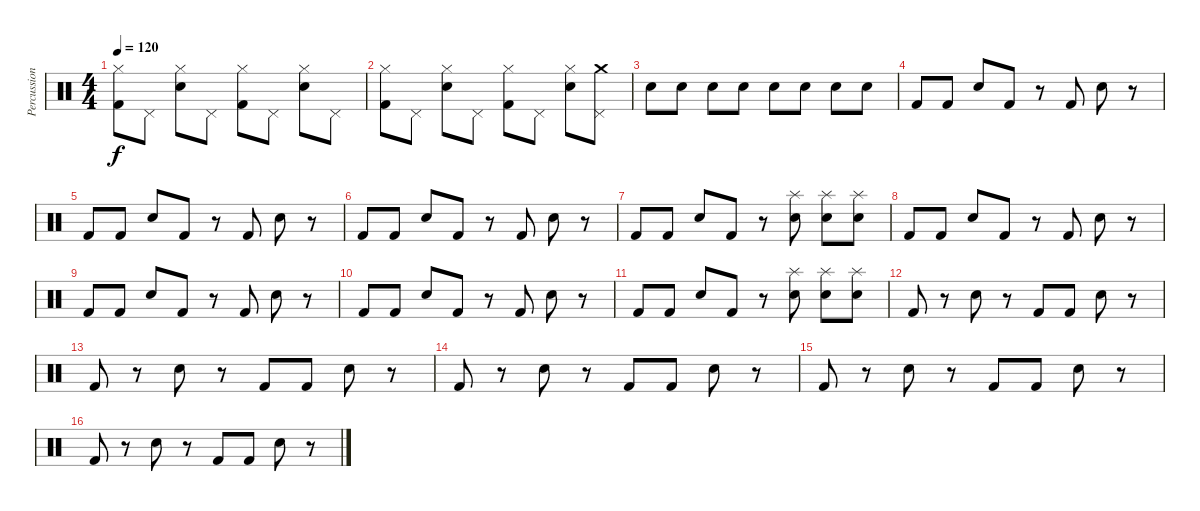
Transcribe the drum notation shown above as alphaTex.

\track ("Percussion" "Percussion") {instrument percussion}
\staff {score}
\articulation defaults
\ts (4 4)
\tempo 120
\clef neutral
\ks c
("Kick (hit) 2" "Hi-Hat (closed)").8{dy f} "Pedal Hi-Hat (hit)".8 ("Snare (hit) 2" "Hi-Hat (closed)").8 "Pedal Hi-Hat (hit)".8 ("Kick (hit) 2" "Hi-Hat (closed)").8 "Pedal Hi-Hat (hit)".8 ("Snare (hit) 2" "Hi-Hat (closed)").8 "Pedal Hi-Hat (hit)".8 |
("Kick (hit) 2" "Hi-Hat (closed)").8 "Pedal Hi-Hat (hit)".8 ("Snare (hit) 2" "Hi-Hat (closed)").8 "Pedal Hi-Hat (hit)".8 ("Kick (hit) 2" "Hi-Hat (closed)").8 "Pedal Hi-Hat (hit)".8 ("Snare (hit) 2" "Hi-Hat (closed)").8 ("Pedal Hi-Hat (hit)" "Crash medium (hit)").8 |
"Snare (hit) 2".8 "Snare (hit) 2".8 "Snare (hit) 2".8 "Snare (hit) 2".8 "Snare (hit) 2".8 "Snare (hit) 2".8 "Snare (hit) 2".8 "Snare (hit) 2".8 |
"Kick (hit) 2".8 "Kick (hit) 2".8 "Snare (hit) 2".8 "Kick (hit) 2".8 r.8 "Kick (hit) 2".8 "Snare (hit) 2".8 r.8 |
"Kick (hit) 2".8 "Kick (hit) 2".8 "Snare (hit) 2".8 "Kick (hit) 2".8 r.8 "Kick (hit) 2".8 "Snare (hit) 2".8 r.8 |
"Kick (hit) 2".8 "Kick (hit) 2".8 "Snare (hit) 2".8 "Kick (hit) 2".8 r.8 "Kick (hit) 2".8 "Snare (hit) 2".8 r.8 |
"Kick (hit) 2".8 "Kick (hit) 2".8 "Snare (hit) 2".8 "Kick (hit) 2".8 r.8 ("Snare (hit) 2" "Splash (hit)").8 ("Snare (hit) 2" "Splash (hit)").8 ("Snare (hit) 2" "Splash (hit)").8 |
"Kick (hit) 2".8 "Kick (hit) 2".8 "Snare (hit) 2".8 "Kick (hit) 2".8 r.8 "Kick (hit) 2".8 "Snare (hit) 2".8 r.8 |
"Kick (hit) 2".8 "Kick (hit) 2".8 "Snare (hit) 2".8 "Kick (hit) 2".8 r.8 "Kick (hit) 2".8 "Snare (hit) 2".8 r.8 |
"Kick (hit) 2".8 "Kick (hit) 2".8 "Snare (hit) 2".8 "Kick (hit) 2".8 r.8 "Kick (hit) 2".8 "Snare (hit) 2".8 r.8 |
"Kick (hit) 2".8 "Kick (hit) 2".8 "Snare (hit) 2".8 "Kick (hit) 2".8 r.8 ("Snare (hit) 2" "Splash (hit)").8 ("Snare (hit) 2" "Splash (hit)").8 ("Snare (hit) 2" "Splash (hit)").8 |
"Kick (hit) 2".8 r.8 "Snare (hit) 2".8 r.8 "Kick (hit) 2".8 "Kick (hit) 2".8 "Snare (hit) 2".8 r.8 |
"Kick (hit) 2".8 r.8 "Snare (hit) 2".8 r.8 "Kick (hit) 2".8 "Kick (hit) 2".8 "Snare (hit) 2".8 r.8 |
"Kick (hit) 2".8 r.8 "Snare (hit) 2".8 r.8 "Kick (hit) 2".8 "Kick (hit) 2".8 "Snare (hit) 2".8 r.8 |
"Kick (hit) 2".8 r.8 "Snare (hit) 2".8 r.8 "Kick (hit) 2".8 "Kick (hit) 2".8 "Snare (hit) 2".8 r.8 |
"Kick (hit) 2".8 r.8 "Snare (hit) 2".8 r.8 "Kick (hit) 2".8 "Kick (hit) 2".8 "Snare (hit) 2".8 r.8
